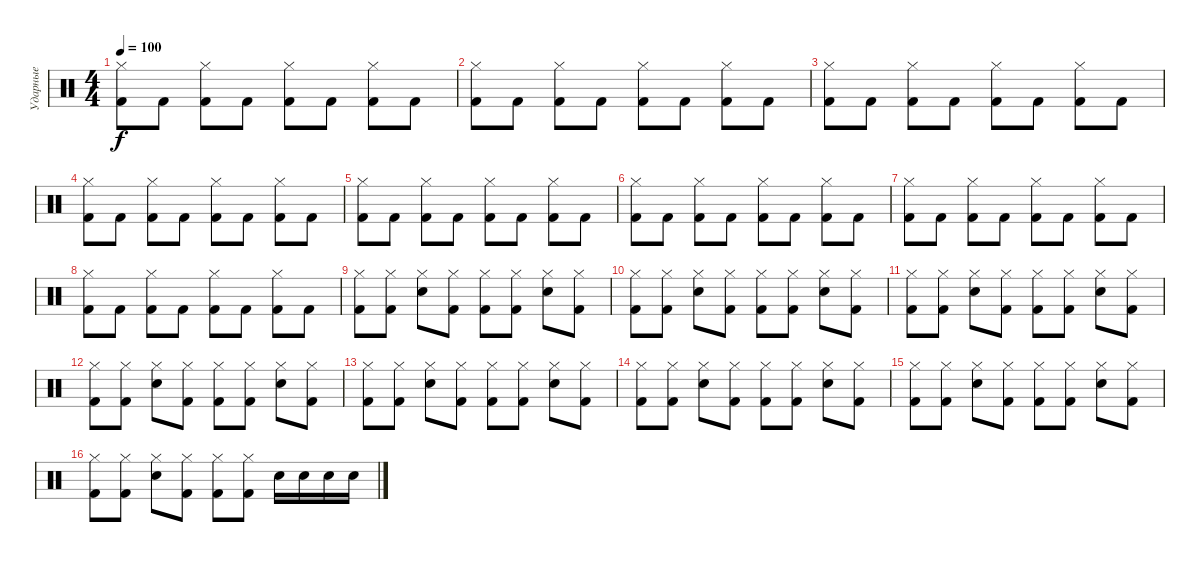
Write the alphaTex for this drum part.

\track ("Ударные" "Ударные") {instrument percussion}
\staff {score}
\articulation defaults
\ts (4 4)
\tempo 100
\clef neutral
\ks c
("Hi-Hat (closed)" "Kick (hit) 2").8{dy f} "Kick (hit) 2".8 ("Hi-Hat (closed)" "Kick (hit) 2").8 "Kick (hit) 2".8 ("Hi-Hat (closed)" "Kick (hit) 2").8 "Kick (hit) 2".8 ("Hi-Hat (closed)" "Kick (hit) 2").8 "Kick (hit) 2".8 |
("Hi-Hat (closed)" "Kick (hit) 2").8 "Kick (hit) 2".8 ("Hi-Hat (closed)" "Kick (hit) 2").8 "Kick (hit) 2".8 ("Hi-Hat (closed)" "Kick (hit) 2").8 "Kick (hit) 2".8 ("Hi-Hat (closed)" "Kick (hit) 2").8 "Kick (hit) 2".8 |
("Hi-Hat (closed)" "Kick (hit) 2").8 "Kick (hit) 2".8 ("Hi-Hat (closed)" "Kick (hit) 2").8 "Kick (hit) 2".8 ("Hi-Hat (closed)" "Kick (hit) 2").8 "Kick (hit) 2".8 ("Hi-Hat (closed)" "Kick (hit) 2").8 "Kick (hit) 2".8 |
("Hi-Hat (closed)" "Kick (hit) 2").8 "Kick (hit) 2".8 ("Hi-Hat (closed)" "Kick (hit) 2").8 "Kick (hit) 2".8 ("Hi-Hat (closed)" "Kick (hit) 2").8 "Kick (hit) 2".8 ("Hi-Hat (closed)" "Kick (hit) 2").8 "Kick (hit) 2".8 |
("Hi-Hat (closed)" "Kick (hit) 2").8 "Kick (hit) 2".8 ("Hi-Hat (closed)" "Kick (hit) 2").8 "Kick (hit) 2".8 ("Hi-Hat (closed)" "Kick (hit) 2").8 "Kick (hit) 2".8 ("Hi-Hat (closed)" "Kick (hit) 2").8 "Kick (hit) 2".8 |
("Hi-Hat (closed)" "Kick (hit) 2").8 "Kick (hit) 2".8 ("Hi-Hat (closed)" "Kick (hit) 2").8 "Kick (hit) 2".8 ("Hi-Hat (closed)" "Kick (hit) 2").8 "Kick (hit) 2".8 ("Hi-Hat (closed)" "Kick (hit) 2").8 "Kick (hit) 2".8 |
("Hi-Hat (closed)" "Kick (hit) 2").8 "Kick (hit) 2".8 ("Hi-Hat (closed)" "Kick (hit) 2").8 "Kick (hit) 2".8 ("Hi-Hat (closed)" "Kick (hit) 2").8 "Kick (hit) 2".8 ("Hi-Hat (closed)" "Kick (hit) 2").8 "Kick (hit) 2".8 |
("Hi-Hat (closed)" "Kick (hit) 2").8 "Kick (hit) 2".8 ("Hi-Hat (closed)" "Kick (hit) 2").8 "Kick (hit) 2".8 ("Hi-Hat (closed)" "Kick (hit) 2").8 "Kick (hit) 2".8 ("Hi-Hat (closed)" "Kick (hit) 2").8 "Kick (hit) 2".8 |
("Hi-Hat (closed)" "Kick (hit) 2").8 ("Hi-Hat (closed)" "Kick (hit) 2").8 ("Hi-Hat (closed)" "Snare (hit) 2").8 ("Hi-Hat (closed)" "Kick (hit) 2").8 ("Hi-Hat (closed)" "Kick (hit) 2").8 ("Hi-Hat (closed)" "Kick (hit) 2").8 ("Hi-Hat (closed)" "Snare (hit) 2").8 ("Hi-Hat (closed)" "Kick (hit) 2").8 |
("Hi-Hat (closed)" "Kick (hit) 2").8 ("Hi-Hat (closed)" "Kick (hit) 2").8 ("Hi-Hat (closed)" "Snare (hit) 2").8 ("Hi-Hat (closed)" "Kick (hit) 2").8 ("Hi-Hat (closed)" "Kick (hit) 2").8 ("Hi-Hat (closed)" "Kick (hit) 2").8 ("Hi-Hat (closed)" "Snare (hit) 2").8 ("Hi-Hat (closed)" "Kick (hit) 2").8 |
("Hi-Hat (closed)" "Kick (hit) 2").8 ("Hi-Hat (closed)" "Kick (hit) 2").8 ("Hi-Hat (closed)" "Snare (hit) 2").8 ("Hi-Hat (closed)" "Kick (hit) 2").8 ("Hi-Hat (closed)" "Kick (hit) 2").8 ("Hi-Hat (closed)" "Kick (hit) 2").8 ("Hi-Hat (closed)" "Snare (hit) 2").8 ("Hi-Hat (closed)" "Kick (hit) 2").8 |
("Hi-Hat (closed)" "Kick (hit) 2").8 ("Hi-Hat (closed)" "Kick (hit) 2").8 ("Hi-Hat (closed)" "Snare (hit) 2").8 ("Hi-Hat (closed)" "Kick (hit) 2").8 ("Hi-Hat (closed)" "Kick (hit) 2").8 ("Hi-Hat (closed)" "Kick (hit) 2").8 ("Hi-Hat (closed)" "Snare (hit) 2").8 ("Hi-Hat (closed)" "Kick (hit) 2").8 |
("Hi-Hat (closed)" "Kick (hit) 2").8 ("Hi-Hat (closed)" "Kick (hit) 2").8 ("Hi-Hat (closed)" "Snare (hit) 2").8 ("Hi-Hat (closed)" "Kick (hit) 2").8 ("Hi-Hat (closed)" "Kick (hit) 2").8 ("Hi-Hat (closed)" "Kick (hit) 2").8 ("Hi-Hat (closed)" "Snare (hit) 2").8 ("Hi-Hat (closed)" "Kick (hit) 2").8 |
("Hi-Hat (closed)" "Kick (hit) 2").8 ("Hi-Hat (closed)" "Kick (hit) 2").8 ("Hi-Hat (closed)" "Snare (hit) 2").8 ("Hi-Hat (closed)" "Kick (hit) 2").8 ("Hi-Hat (closed)" "Kick (hit) 2").8 ("Hi-Hat (closed)" "Kick (hit) 2").8 ("Hi-Hat (closed)" "Snare (hit) 2").8 ("Hi-Hat (closed)" "Kick (hit) 2").8 |
("Hi-Hat (closed)" "Kick (hit) 2").8 ("Hi-Hat (closed)" "Kick (hit) 2").8 ("Hi-Hat (closed)" "Snare (hit) 2").8 ("Hi-Hat (closed)" "Kick (hit) 2").8 ("Hi-Hat (closed)" "Kick (hit) 2").8 ("Hi-Hat (closed)" "Kick (hit) 2").8 ("Hi-Hat (closed)" "Snare (hit) 2").8 ("Hi-Hat (closed)" "Kick (hit) 2").8 |
("Hi-Hat (closed)" "Kick (hit) 2").8 ("Hi-Hat (closed)" "Kick (hit) 2").8 ("Hi-Hat (closed)" "Snare (hit) 2").8 ("Hi-Hat (closed)" "Kick (hit) 2").8 ("Hi-Hat (closed)" "Kick (hit) 2").8 ("Hi-Hat (closed)" "Kick (hit) 2").8 "Snare (hit) 2".16 "Snare (hit) 2".16 "Snare (hit) 2".16 "Snare (hit) 2".16
